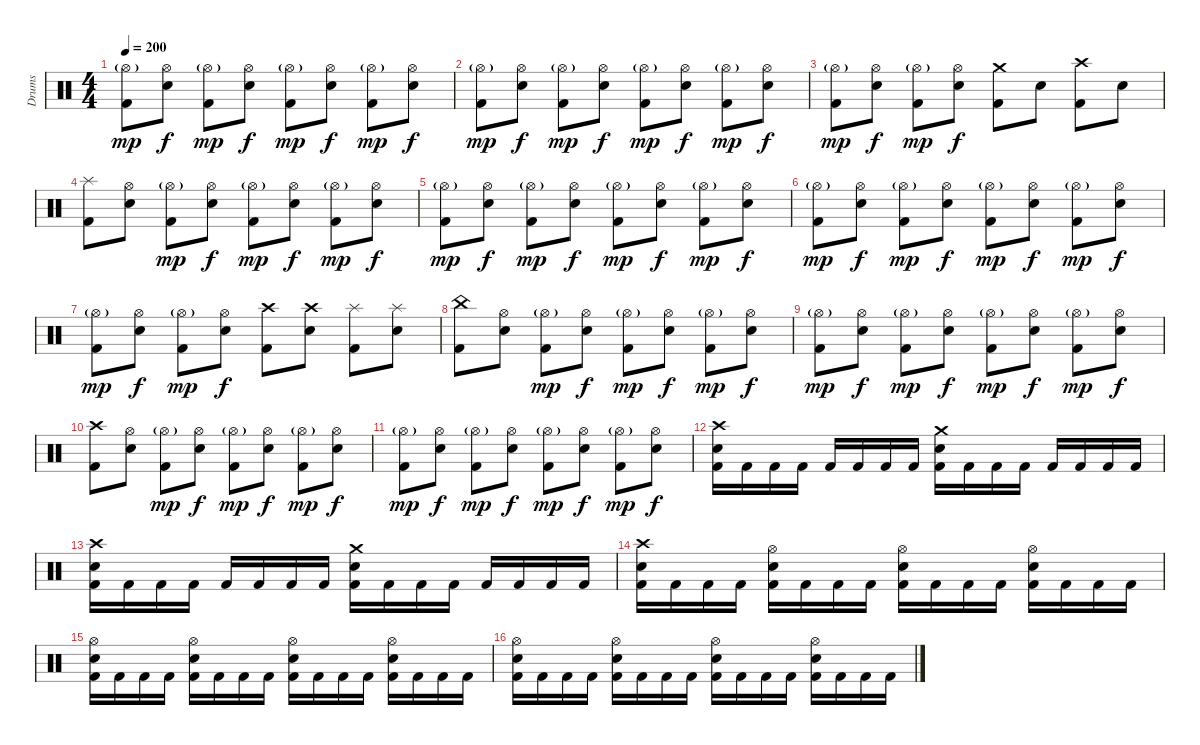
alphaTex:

\track ("Drums" "Drums") {instrument percussion}
\staff {score}
\articulation defaults
\ts (4 4)
\tempo 200
\clef neutral
\ks c
("Hi-Hat (open)"{g} "Kick (hit) 2").8{dy mp} ("Hi-Hat (open)" "Electric Snare (hit)").8{dy f} ("Hi-Hat (open)"{g} "Kick (hit) 2").8{dy mp} ("Hi-Hat (open)" "Electric Snare (hit)").8{dy f} ("Hi-Hat (open)"{g} "Kick (hit) 2").8{dy mp} ("Hi-Hat (open)" "Electric Snare (hit)").8{dy f} ("Hi-Hat (open)"{g} "Kick (hit) 2").8{dy mp} ("Hi-Hat (open)" "Electric Snare (hit)").8{dy f} |
("Hi-Hat (open)"{g} "Kick (hit) 2").8{dy mp} ("Hi-Hat (open)" "Electric Snare (hit)").8{dy f} ("Hi-Hat (open)"{g} "Kick (hit) 2").8{dy mp} ("Hi-Hat (open)" "Electric Snare (hit)").8{dy f} ("Hi-Hat (open)"{g} "Kick (hit) 2").8{dy mp} ("Hi-Hat (open)" "Electric Snare (hit)").8{dy f} ("Hi-Hat (open)"{g} "Kick (hit) 2").8{dy mp} ("Hi-Hat (open)" "Electric Snare (hit)").8{dy f} |
("Hi-Hat (open)"{g} "Kick (hit) 2").8{dy mp} ("Hi-Hat (open)" "Electric Snare (hit)").8{dy f} ("Hi-Hat (open)"{g} "Kick (hit) 2").8{dy mp} ("Hi-Hat (open)" "Electric Snare (hit)").8{dy f} ("Crash medium (hit)" "Kick (hit) 2").8 "Electric Snare (hit)".8 ("Crash high (hit)" "Kick (hit) 2").8 "Electric Snare (hit)".8 |
("Splash (hit)" "Kick (hit) 2").8 ("Hi-Hat (open)" "Electric Snare (hit)").8 ("Hi-Hat (open)"{g} "Kick (hit) 2").8{dy mp} ("Hi-Hat (open)" "Electric Snare (hit)").8{dy f} ("Hi-Hat (open)"{g} "Kick (hit) 2").8{dy mp} ("Hi-Hat (open)" "Electric Snare (hit)").8{dy f} ("Hi-Hat (open)"{g} "Kick (hit) 2").8{dy mp} ("Hi-Hat (open)" "Electric Snare (hit)").8{dy f} |
("Hi-Hat (open)"{g} "Kick (hit) 2").8{dy mp} ("Hi-Hat (open)" "Electric Snare (hit)").8{dy f} ("Hi-Hat (open)"{g} "Kick (hit) 2").8{dy mp} ("Hi-Hat (open)" "Electric Snare (hit)").8{dy f} ("Hi-Hat (open)"{g} "Kick (hit) 2").8{dy mp} ("Hi-Hat (open)" "Electric Snare (hit)").8{dy f} ("Hi-Hat (open)"{g} "Kick (hit) 2").8{dy mp} ("Hi-Hat (open)" "Electric Snare (hit)").8{dy f} |
("Hi-Hat (open)"{g} "Kick (hit) 2").8{dy mp} ("Hi-Hat (open)" "Electric Snare (hit)").8{dy f} ("Hi-Hat (open)"{g} "Kick (hit) 2").8{dy mp} ("Hi-Hat (open)" "Electric Snare (hit)").8{dy f} ("Hi-Hat (open)"{g} "Kick (hit) 2").8{dy mp} ("Hi-Hat (open)" "Electric Snare (hit)").8{dy f} ("Hi-Hat (open)"{g} "Kick (hit) 2").8{dy mp} ("Hi-Hat (open)" "Electric Snare (hit)").8{dy f} |
("Hi-Hat (open)"{g} "Kick (hit) 2").8{dy mp} ("Hi-Hat (open)" "Electric Snare (hit)").8{dy f} ("Hi-Hat (open)"{g} "Kick (hit) 2").8{dy mp} ("Hi-Hat (open)" "Electric Snare (hit)").8{dy f} ("Crash high (hit)" "Kick (hit) 2").8 ("Crash high (hit)" "Electric Snare (hit)").8 ("Splash (hit)" "Kick (hit) 2").8 ("Splash (hit)" "Electric Snare (hit)").8 |
("China (hit)" "Kick (hit) 2").8 ("Hi-Hat (open)" "Electric Snare (hit)").8 ("Hi-Hat (open)"{g} "Kick (hit) 2").8{dy mp} ("Hi-Hat (open)" "Electric Snare (hit)").8{dy f} ("Hi-Hat (open)"{g} "Kick (hit) 2").8{dy mp} ("Hi-Hat (open)" "Electric Snare (hit)").8{dy f} ("Hi-Hat (open)"{g} "Kick (hit) 2").8{dy mp} ("Hi-Hat (open)" "Electric Snare (hit)").8{dy f} |
("Hi-Hat (open)"{g} "Kick (hit) 2").8{dy mp} ("Hi-Hat (open)" "Electric Snare (hit)").8{dy f} ("Hi-Hat (open)"{g} "Kick (hit) 2").8{dy mp} ("Hi-Hat (open)" "Electric Snare (hit)").8{dy f} ("Hi-Hat (open)"{g} "Kick (hit) 2").8{dy mp} ("Hi-Hat (open)" "Electric Snare (hit)").8{dy f} ("Hi-Hat (open)"{g} "Kick (hit) 2").8{dy mp} ("Hi-Hat (open)" "Electric Snare (hit)").8{dy f} |
("Crash high (hit)" "Kick (hit) 2").8 ("Hi-Hat (open)" "Electric Snare (hit)").8 ("Hi-Hat (open)"{g} "Kick (hit) 2").8{dy mp} ("Hi-Hat (open)" "Electric Snare (hit)").8{dy f} ("Hi-Hat (open)"{g} "Kick (hit) 2").8{dy mp} ("Hi-Hat (open)" "Electric Snare (hit)").8{dy f} ("Hi-Hat (open)"{g} "Kick (hit) 2").8{dy mp} ("Hi-Hat (open)" "Electric Snare (hit)").8{dy f} |
("Hi-Hat (open)"{g} "Kick (hit) 2").8{dy mp} ("Hi-Hat (open)" "Electric Snare (hit)").8{dy f} ("Hi-Hat (open)"{g} "Kick (hit) 2").8{dy mp} ("Hi-Hat (open)" "Electric Snare (hit)").8{dy f} ("Hi-Hat (open)"{g} "Kick (hit) 2").8{dy mp} ("Hi-Hat (open)" "Electric Snare (hit)").8{dy f} ("Hi-Hat (open)"{g} "Kick (hit) 2").8{dy mp} ("Hi-Hat (open)" "Electric Snare (hit)").8{dy f} |
("Crash high (hit)" "Electric Snare (hit)" "Kick (hit) 2").16 "Kick (hit) 2".16 "Kick (hit) 2".16 "Kick (hit) 2".16 "Kick (hit) 2".16 "Kick (hit) 2".16 "Kick (hit) 2".16 "Kick (hit) 2".16 ("Crash medium (hit)" "Electric Snare (hit)" "Kick (hit) 2").16 "Kick (hit) 2".16 "Kick (hit) 2".16 "Kick (hit) 2".16 "Kick (hit) 2".16 "Kick (hit) 2".16 "Kick (hit) 2".16 "Kick (hit) 2".16 |
("Crash high (hit)" "Electric Snare (hit)" "Kick (hit) 2").16 "Kick (hit) 2".16 "Kick (hit) 2".16 "Kick (hit) 2".16 "Kick (hit) 2".16 "Kick (hit) 2".16 "Kick (hit) 2".16 "Kick (hit) 2".16 ("Crash medium (hit)" "Electric Snare (hit)" "Kick (hit) 2").16 "Kick (hit) 2".16 "Kick (hit) 2".16 "Kick (hit) 2".16 "Kick (hit) 2".16 "Kick (hit) 2".16 "Kick (hit) 2".16 "Kick (hit) 2".16 |
("Crash high (hit)" "Electric Snare (hit)" "Kick (hit) 2").16 "Kick (hit) 2".16 "Kick (hit) 2".16 "Kick (hit) 2".16 ("Hi-Hat (open)" "Electric Snare (hit)" "Kick (hit) 2").16 "Kick (hit) 2".16 "Kick (hit) 2".16 "Kick (hit) 2".16 ("Hi-Hat (open)" "Electric Snare (hit)" "Kick (hit) 2").16 "Kick (hit) 2".16 "Kick (hit) 2".16 "Kick (hit) 2".16 ("Hi-Hat (open)" "Electric Snare (hit)" "Kick (hit) 2").16 "Kick (hit) 2".16 "Kick (hit) 2".16 "Kick (hit) 2".16 |
("Hi-Hat (open)" "Electric Snare (hit)" "Kick (hit) 2").16 "Kick (hit) 2".16 "Kick (hit) 2".16 "Kick (hit) 2".16 ("Hi-Hat (open)" "Electric Snare (hit)" "Kick (hit) 2").16 "Kick (hit) 2".16 "Kick (hit) 2".16 "Kick (hit) 2".16 ("Hi-Hat (open)" "Electric Snare (hit)" "Kick (hit) 2").16 "Kick (hit) 2".16 "Kick (hit) 2".16 "Kick (hit) 2".16 ("Hi-Hat (open)" "Electric Snare (hit)" "Kick (hit) 2").16 "Kick (hit) 2".16 "Kick (hit) 2".16 "Kick (hit) 2".16 |
("Hi-Hat (open)" "Electric Snare (hit)" "Kick (hit) 2").16 "Kick (hit) 2".16 "Kick (hit) 2".16 "Kick (hit) 2".16 ("Hi-Hat (open)" "Electric Snare (hit)" "Kick (hit) 2").16 "Kick (hit) 2".16 "Kick (hit) 2".16 "Kick (hit) 2".16 ("Hi-Hat (open)" "Electric Snare (hit)" "Kick (hit) 2").16 "Kick (hit) 2".16 "Kick (hit) 2".16 "Kick (hit) 2".16 ("Hi-Hat (open)" "Electric Snare (hit)" "Kick (hit) 2").16 "Kick (hit) 2".16 "Kick (hit) 2".16 "Kick (hit) 2".16
